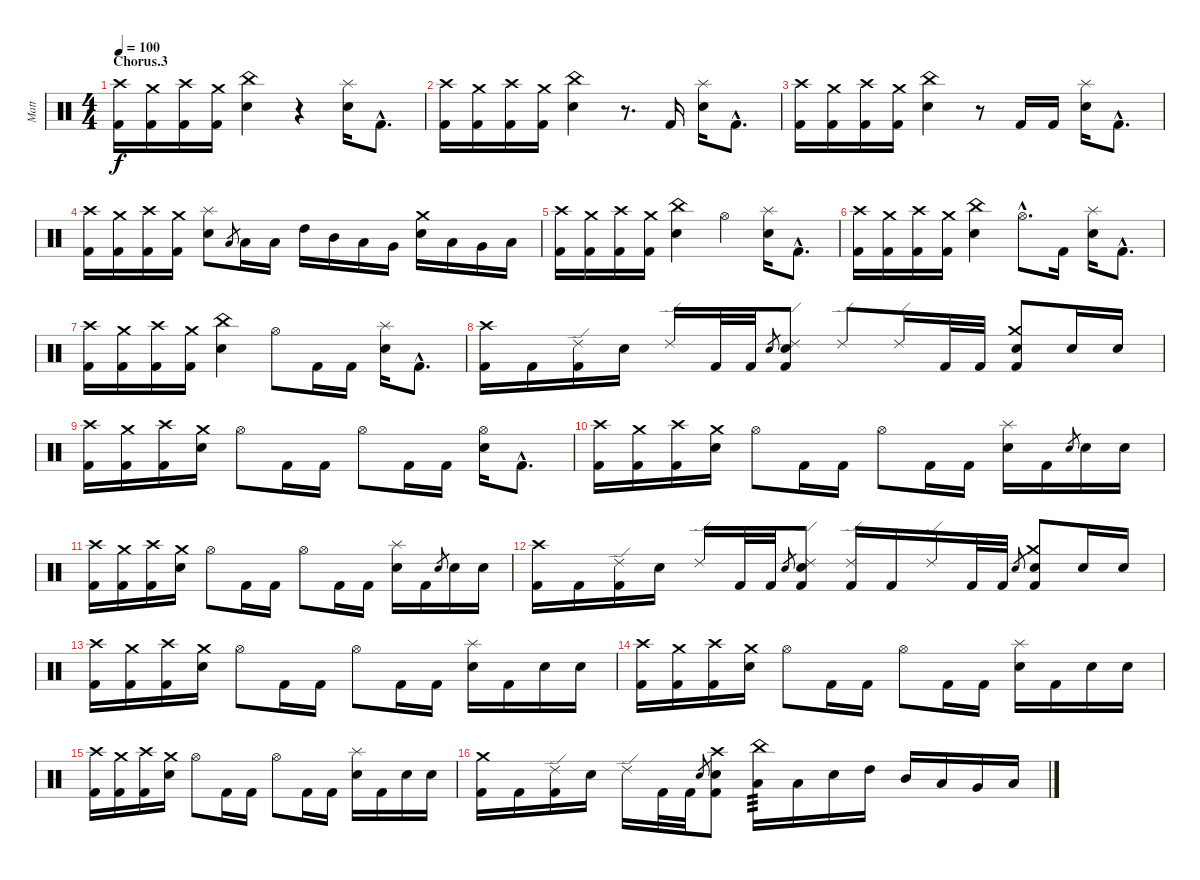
\track ("Matt" "Matt") {instrument percussion}
\staff {score}
\articulation defaults
\ts (4 4)
\section ("" "Chorus.3")
\tempo 100
\clef neutral
\ks c
("Crash high (hit)" "Kick (hit) 2").16{dy f} ("Crash medium (hit)" "Kick (hit) 2").16 ("Crash high (hit)" "Kick (hit) 2").16 ("Crash medium (hit)" "Kick (hit) 2").16 ("China (hit)" "Electric Snare (hit)").4 r.4 ("Splash (hit)" "Electric Snare (hit)").16 "Kick (hit) 2"{hac}.8{d} |
("Crash high (hit)" "Kick (hit) 2").16 ("Crash medium (hit)" "Kick (hit) 2").16 ("Crash high (hit)" "Kick (hit) 2").16 ("Crash medium (hit)" "Kick (hit) 2").16 ("China (hit)" "Electric Snare (hit)").4 r.8{d} "Kick (hit) 2".16 ("Splash (hit)" "Electric Snare (hit)").16 "Kick (hit) 2"{hac}.8{d} |
("Crash high (hit)" "Kick (hit) 2").16 ("Crash medium (hit)" "Kick (hit) 2").16 ("Crash high (hit)" "Kick (hit) 2").16 ("Crash medium (hit)" "Kick (hit) 2").16 ("China (hit)" "Electric Snare (hit)").4 r.8 "Kick (hit) 2".16 "Kick (hit) 2".16 ("Splash (hit)" "Electric Snare (hit)").16 "Kick (hit) 2"{hac}.8{d} |
("Crash high (hit)" "Kick (hit) 2").16 ("Crash medium (hit)" "Kick (hit) 2").16 ("Crash high (hit)" "Kick (hit) 2").16 ("Crash medium (hit)" "Kick (hit) 2").16 ("Splash (hit)" "Electric Snare (hit)").8 "Low Tom (hit)".8{gr} "Low Tom (hit)".16 "Low Tom (hit)".16 "High Tom (hit)".16 "Mid Tom (hit)".16 "Low Tom (hit)".16 "Very Low Tom (hit)".16 ("Crash medium (hit)" "Electric Snare (hit)").16 "Low Tom (hit)".16 "Very Low Tom (hit)".16 "Low Floor Tom (hit)".16 |
("Crash high (hit)" "Kick (hit) 2").16 ("Crash medium (hit)" "Kick (hit) 2").16 ("Crash high (hit)" "Kick (hit) 2").16 ("Crash medium (hit)" "Kick (hit) 2").16 ("China (hit)" "Electric Snare (hit)").4 "Hi-Hat (open)".4 ("Splash (hit)" "Electric Snare (hit)").16 "Kick (hit) 2"{hac}.8{d} |
("Crash high (hit)" "Kick (hit) 2").16 ("Crash medium (hit)" "Kick (hit) 2").16 ("Crash high (hit)" "Kick (hit) 2").16 ("Crash medium (hit)" "Kick (hit) 2").16 ("China (hit)" "Electric Snare (hit)").4 "Hi-Hat (open)"{hac}.8{d} "Kick (hit) 2".16 ("Splash (hit)" "Electric Snare (hit)").16 "Kick (hit) 2"{hac}.8{d} |
("Crash high (hit)" "Kick (hit) 2").16 ("Crash medium (hit)" "Kick (hit) 2").16 ("Crash high (hit)" "Kick (hit) 2").16 ("Crash medium (hit)" "Kick (hit) 2").16 ("China (hit)" "Electric Snare (hit)").4 "Hi-Hat (open)".8 "Kick (hit) 2".16 "Kick (hit) 2".16 ("Splash (hit)" "Electric Snare (hit)").16 "Kick (hit) 2"{hac}.8{d} |
("Crash high (hit)" "Kick (hit) 2").16 "Kick (hit) 2".16 ("Ride (edge) 2" "Kick (hit) 2").16 "Electric Snare (hit)".16 "Ride (edge) 2".16 "Kick (hit) 2".32 "Kick (hit) 2".32 "Electric Snare (hit)".8{gr} ("Ride (edge) 2" "Electric Snare (hit)" "Kick (hit) 2").8 "Ride (edge) 2".8 "Ride (edge) 2".16 "Kick (hit) 2".32 "Kick (hit) 2".32 ("Crash medium (hit)" "Electric Snare (hit)" "Kick (hit) 2").8 "Electric Snare (hit)".16 "Electric Snare (hit)".16 |
("Crash high (hit)" "Kick (hit) 2").16 ("Crash medium (hit)" "Kick (hit) 2").16 ("Crash high (hit)" "Kick (hit) 2").16 ("Crash medium (hit)" "Electric Snare (hit)").16 "Hi-Hat (open)".8 "Kick (hit) 2".16 "Kick (hit) 2".16 "Hi-Hat (open)".8 "Kick (hit) 2".16 "Kick (hit) 2".16 ("Hi-Hat (open)" "Electric Snare (hit)").16 "Kick (hit) 2"{hac}.8{d} |
("Crash high (hit)" "Kick (hit) 2").16 ("Crash medium (hit)" "Kick (hit) 2").16 ("Crash high (hit)" "Kick (hit) 2").16 ("Crash medium (hit)" "Electric Snare (hit)").16 "Hi-Hat (open)".8 "Kick (hit) 2".16 "Kick (hit) 2".16 "Hi-Hat (open)".8 "Kick (hit) 2".16 "Kick (hit) 2".16 ("Splash (hit)" "Electric Snare (hit)").16 "Kick (hit) 2".16 "Electric Snare (hit)".8{gr} "Electric Snare (hit)".16 "Electric Snare (hit)".16 |
("Crash high (hit)" "Kick (hit) 2").16 ("Crash medium (hit)" "Kick (hit) 2").16 ("Crash high (hit)" "Kick (hit) 2").16 ("Crash medium (hit)" "Electric Snare (hit)").16 "Hi-Hat (open)".8 "Kick (hit) 2".16 "Kick (hit) 2".16 "Hi-Hat (open)".8 "Kick (hit) 2".16 "Kick (hit) 2".16 ("Splash (hit)" "Electric Snare (hit)").16 "Kick (hit) 2".16 "Electric Snare (hit)".8{gr} "Electric Snare (hit)".16 "Electric Snare (hit)".16 |
("Crash high (hit)" "Kick (hit) 2").16 "Kick (hit) 2".16 ("Ride (edge) 2" "Kick (hit) 2").16 "Electric Snare (hit)".16 "Ride (edge) 2".16 "Kick (hit) 2".32 "Kick (hit) 2".32 "Electric Snare (hit)".8{gr} ("Ride (edge) 2" "Electric Snare (hit)" "Kick (hit) 2").8 ("Ride (edge) 2" "Kick (hit) 2").16 "Kick (hit) 2".16 "Ride (edge) 2".16 "Kick (hit) 2".32 "Kick (hit) 2".32 "Electric Snare (hit)".8{gr} ("Crash medium (hit)" "Electric Snare (hit)" "Kick (hit) 2").8 "Electric Snare (hit)".16 "Electric Snare (hit)".16 |
("Crash high (hit)" "Kick (hit) 2").16 ("Crash medium (hit)" "Kick (hit) 2").16 ("Crash high (hit)" "Kick (hit) 2").16 ("Crash medium (hit)" "Electric Snare (hit)").16 "Hi-Hat (open)".8 "Kick (hit) 2".16 "Kick (hit) 2".16 "Hi-Hat (open)".8 "Kick (hit) 2".16 "Kick (hit) 2".16 ("Splash (hit)" "Electric Snare (hit)").16 "Kick (hit) 2".16 "Electric Snare (hit)".16 "Electric Snare (hit)".16 |
("Crash high (hit)" "Kick (hit) 2").16 ("Crash medium (hit)" "Kick (hit) 2").16 ("Crash high (hit)" "Kick (hit) 2").16 ("Crash medium (hit)" "Electric Snare (hit)").16 "Hi-Hat (open)".8 "Kick (hit) 2".16 "Kick (hit) 2".16 "Hi-Hat (open)".8 "Kick (hit) 2".16 "Kick (hit) 2".16 ("Splash (hit)" "Electric Snare (hit)").16 "Kick (hit) 2".16 "Electric Snare (hit)".16 "Electric Snare (hit)".16 |
("Crash high (hit)" "Kick (hit) 2").16 ("Crash medium (hit)" "Kick (hit) 2").16 ("Crash high (hit)" "Kick (hit) 2").16 ("Crash medium (hit)" "Electric Snare (hit)").16 "Hi-Hat (open)".8 "Kick (hit) 2".16 "Kick (hit) 2".16 "Hi-Hat (open)".8 "Kick (hit) 2".16 "Kick (hit) 2".16 ("Splash (hit)" "Electric Snare (hit)").16 "Kick (hit) 2".16 "Electric Snare (hit)".16 "Electric Snare (hit)".16 |
("Crash medium (hit)" "Kick (hit) 2").16 "Kick (hit) 2".16 ("Ride (edge) 2" "Kick (hit) 2").16 "Electric Snare (hit)".16 "Ride (edge) 2".16 "Kick (hit) 2".32 "Kick (hit) 2".32 "Electric Snare (hit)".8{gr} ("Crash high (hit)" "Electric Snare (hit)" "Kick (hit) 2").8 ("China (hit)" "Low Tom (hit)").16{tp 3} "Low Tom (hit)".16 "Electric Snare (hit)".16 "High Tom (hit)".16 "Mid Tom (hit)".16 "Low Tom (hit)".16 "Very Low Tom (hit)".16 "Low Floor Tom (hit)".16
